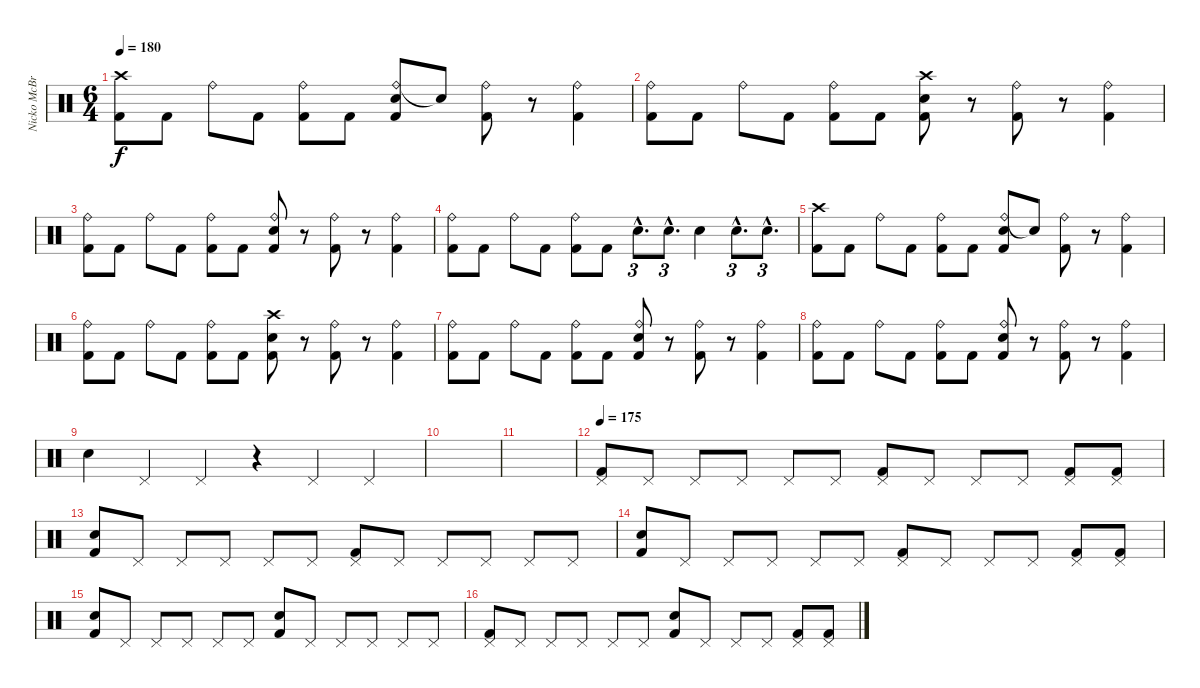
\track ("Nicko McBrain" "Nicko McBr") {instrument percussion}
\staff {score}
\articulation defaults
\ts (6 4)
\tempo 180
\clef neutral
\ks c
("Crash high (hit)" "Kick (hit) 2").8{dy f} "Kick (hit) 2".8 "Ride (bell)".8 "Kick (hit) 2".8 ("Ride (bell)" "Kick (hit) 2").8 "Kick (hit) 2".8 ("Ride (bell)" "Snare (hit) 2" "Kick (hit) 2").8 "Snare (hit) 2"{t}.8 ("Ride (bell)" "Kick (hit) 2").8 r.8 ("Ride (bell)" "Kick (hit) 2").4 |
("Ride (bell)" "Kick (hit) 2").8 "Kick (hit) 2".8 "Ride (bell)".8 "Kick (hit) 2".8 ("Ride (bell)" "Kick (hit) 2").8 "Kick (hit) 2".8 ("Crash high (hit)" "Snare (hit) 2" "Kick (hit) 2").8 r.8 ("Ride (bell)" "Kick (hit) 2").8 r.8 ("Ride (bell)" "Kick (hit) 2").4 |
("Ride (bell)" "Kick (hit) 2").8 "Kick (hit) 2".8 "Ride (bell)".8 "Kick (hit) 2".8 ("Ride (bell)" "Kick (hit) 2").8 "Kick (hit) 2".8 ("Snare (hit) 2" "Ride (bell)" "Kick (hit) 2").8 r.8 ("Ride (bell)" "Kick (hit) 2").8 r.8 ("Ride (bell)" "Kick (hit) 2").4 |
("Ride (bell)" "Kick (hit) 2").8 "Kick (hit) 2".8 "Ride (bell)".8 "Kick (hit) 2".8 ("Ride (bell)" "Kick (hit) 2").8 "Kick (hit) 2".8 "Snare (hit) 2"{hac}.8{d tu (3 2)} "Snare (hit) 2"{hac}.8{d tu (3 2)} "Snare (hit) 2".4 "Snare (hit) 2"{hac}.8{d tu (3 2)} "Snare (hit) 2"{hac}.8{d tu (3 2)} |
("Crash high (hit)" "Kick (hit) 2").8 "Kick (hit) 2".8 "Ride (bell)".8 "Kick (hit) 2".8 ("Ride (bell)" "Kick (hit) 2").8 "Kick (hit) 2".8 ("Ride (bell)" "Snare (hit) 2" "Kick (hit) 2").8 "Snare (hit) 2"{t}.8 ("Ride (bell)" "Kick (hit) 2").8 r.8 ("Ride (bell)" "Kick (hit) 2").4 |
("Ride (bell)" "Kick (hit) 2").8 "Kick (hit) 2".8 "Ride (bell)".8 "Kick (hit) 2".8 ("Ride (bell)" "Kick (hit) 2").8 "Kick (hit) 2".8 ("Crash high (hit)" "Snare (hit) 2" "Kick (hit) 2").8 r.8 ("Ride (bell)" "Kick (hit) 2").8 r.8 ("Ride (bell)" "Kick (hit) 2").4 |
("Ride (bell)" "Kick (hit) 2").8 "Kick (hit) 2".8 "Ride (bell)".8 "Kick (hit) 2".8 ("Ride (bell)" "Kick (hit) 2").8 "Kick (hit) 2".8 ("Snare (hit) 2" "Ride (bell)" "Kick (hit) 2").8 r.8 ("Ride (bell)" "Kick (hit) 2").8 r.8 ("Ride (bell)" "Kick (hit) 2").4 |
("Ride (bell)" "Kick (hit) 2").8 "Kick (hit) 2".8 "Ride (bell)".8 "Kick (hit) 2".8 ("Ride (bell)" "Kick (hit) 2").8 "Kick (hit) 2".8 ("Snare (hit) 2" "Ride (bell)" "Kick (hit) 2").8 r.8 ("Ride (bell)" "Kick (hit) 2").8 r.8 ("Ride (bell)" "Kick (hit) 2").4 |
"Snare (hit) 2".4 "Pedal Hi-Hat (hit)".4 "Pedal Hi-Hat (hit)".4 r.4 "Pedal Hi-Hat (hit)".4 "Pedal Hi-Hat (hit)".4 |
|
|
\tempo 175
("Pedal Hi-Hat (hit)" "Kick (hit) 2").8 "Pedal Hi-Hat (hit)".8 "Pedal Hi-Hat (hit)".8 "Pedal Hi-Hat (hit)".8 "Pedal Hi-Hat (hit)".8 "Pedal Hi-Hat (hit)".8 ("Pedal Hi-Hat (hit)" "Kick (hit) 2").8 "Pedal Hi-Hat (hit)".8 "Pedal Hi-Hat (hit)".8 "Pedal Hi-Hat (hit)".8 ("Pedal Hi-Hat (hit)" "Kick (hit) 2").8 ("Pedal Hi-Hat (hit)" "Kick (hit) 2").8 |
("Snare (hit) 2" "Kick (hit) 2").8 "Pedal Hi-Hat (hit)".8 "Pedal Hi-Hat (hit)".8 "Pedal Hi-Hat (hit)".8 "Pedal Hi-Hat (hit)".8 "Pedal Hi-Hat (hit)".8 ("Pedal Hi-Hat (hit)" "Kick (hit) 2").8 "Pedal Hi-Hat (hit)".8 "Pedal Hi-Hat (hit)".8 "Pedal Hi-Hat (hit)".8 "Pedal Hi-Hat (hit)".8 "Pedal Hi-Hat (hit)".8 |
("Snare (hit) 2" "Kick (hit) 2").8 "Pedal Hi-Hat (hit)".8 "Pedal Hi-Hat (hit)".8 "Pedal Hi-Hat (hit)".8 "Pedal Hi-Hat (hit)".8 "Pedal Hi-Hat (hit)".8 ("Pedal Hi-Hat (hit)" "Kick (hit) 2").8 "Pedal Hi-Hat (hit)".8 "Pedal Hi-Hat (hit)".8 "Pedal Hi-Hat (hit)".8 ("Pedal Hi-Hat (hit)" "Kick (hit) 2").8 ("Pedal Hi-Hat (hit)" "Kick (hit) 2").8 |
("Snare (hit) 2" "Kick (hit) 2").8 "Pedal Hi-Hat (hit)".8 "Pedal Hi-Hat (hit)".8 "Pedal Hi-Hat (hit)".8 "Pedal Hi-Hat (hit)".8 "Pedal Hi-Hat (hit)".8 ("Snare (hit) 2" "Kick (hit) 2").8 "Pedal Hi-Hat (hit)".8 "Pedal Hi-Hat (hit)".8 "Pedal Hi-Hat (hit)".8 "Pedal Hi-Hat (hit)".8 "Pedal Hi-Hat (hit)".8 |
("Pedal Hi-Hat (hit)" "Kick (hit) 2").8 "Pedal Hi-Hat (hit)".8 "Pedal Hi-Hat (hit)".8 "Pedal Hi-Hat (hit)".8 "Pedal Hi-Hat (hit)".8 "Pedal Hi-Hat (hit)".8 ("Snare (hit) 2" "Kick (hit) 2").8 "Pedal Hi-Hat (hit)".8 "Pedal Hi-Hat (hit)".8 "Pedal Hi-Hat (hit)".8 ("Pedal Hi-Hat (hit)" "Kick (hit) 2").8 ("Pedal Hi-Hat (hit)" "Kick (hit) 2").8
